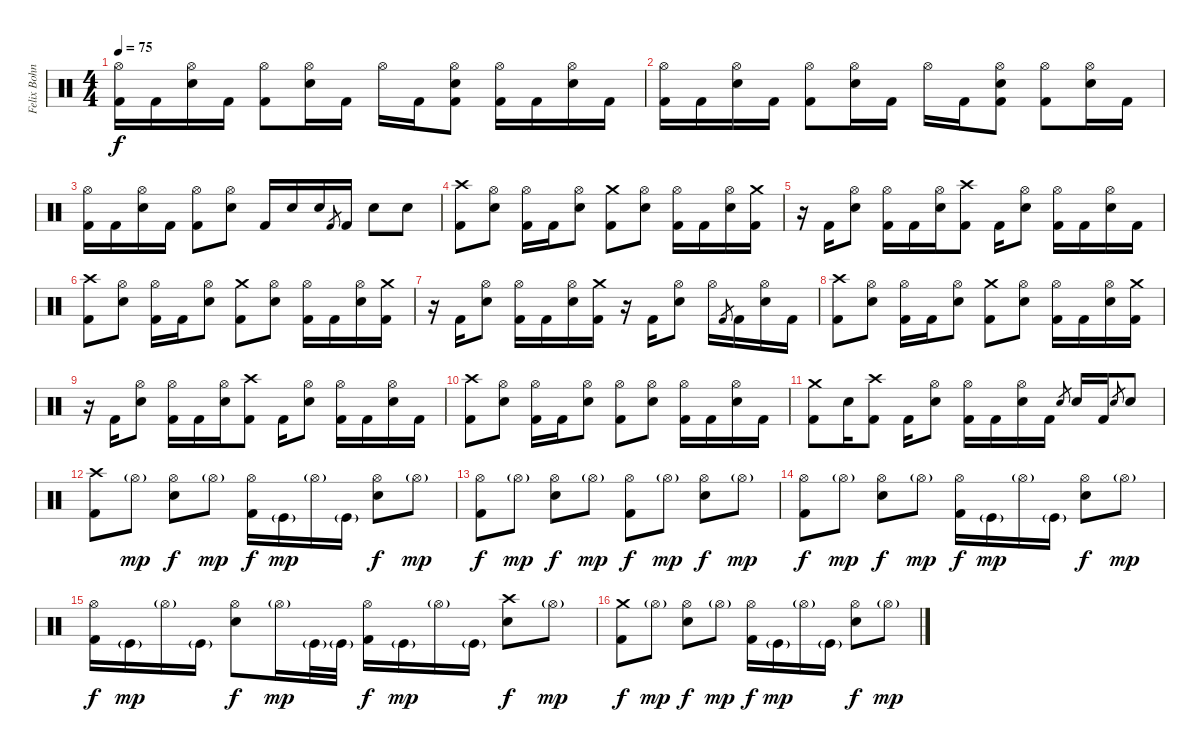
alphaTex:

\track ("Felix Bohnke" "Felix Bohn") {instrument percussion}
\staff {score}
\articulation defaults
\ts (4 4)
\tempo 75
\clef neutral
\ks c
("Hi-Hat (open)" "Kick (hit) 2").16{dy f} "Kick (hit) 2".16 ("Hi-Hat (open)" "Snare (hit) 2").16 "Kick (hit) 2".16 ("Hi-Hat (open)" "Kick (hit) 2").8 ("Hi-Hat (open)" "Snare (hit) 2").16 "Kick (hit) 2".16 "Hi-Hat (open)".16 "Kick (hit) 2".16 ("Hi-Hat (open)" "Snare (hit) 2" "Kick (hit) 2").8 ("Hi-Hat (open)" "Kick (hit) 2").16 "Kick (hit) 2".16 ("Hi-Hat (open)" "Snare (hit) 2").16 "Kick (hit) 2".16 |
("Hi-Hat (open)" "Kick (hit) 2").16 "Kick (hit) 2".16 ("Hi-Hat (open)" "Snare (hit) 2").16 "Kick (hit) 2".16 ("Hi-Hat (open)" "Kick (hit) 2").8 ("Hi-Hat (open)" "Snare (hit) 2").16 "Kick (hit) 2".16 "Hi-Hat (open)".16 "Kick (hit) 2".16 ("Hi-Hat (open)" "Snare (hit) 2" "Kick (hit) 2").8 ("Hi-Hat (open)" "Kick (hit) 2").8 ("Hi-Hat (open)" "Snare (hit) 2").16 "Kick (hit) 2".16 |
("Hi-Hat (open)" "Kick (hit) 2").16 "Kick (hit) 2".16 ("Hi-Hat (open)" "Snare (hit) 2").16 "Kick (hit) 2".16 ("Hi-Hat (open)" "Kick (hit) 2").8 ("Hi-Hat (open)" "Snare (hit) 2").8 "Kick (hit) 2".16 "Snare (hit) 2".16 "Snare (hit) 2".16 "Kick (hit) 2".8{gr} "Kick (hit) 2".16 "Snare (hit) 2".8 "Snare (hit) 2".8 |
("Crash high (hit)" "Kick (hit) 2").8 ("Hi-Hat (open)" "Snare (hit) 2").8 ("Hi-Hat (open)" "Kick (hit) 2").16 "Kick (hit) 2".16 ("Hi-Hat (open)" "Snare (hit) 2").8 ("Crash medium (hit)" "Kick (hit) 2").8 ("Hi-Hat (open)" "Snare (hit) 2").8 ("Hi-Hat (open)" "Kick (hit) 2").16 "Kick (hit) 2".16 ("Hi-Hat (open)" "Snare (hit) 2").16 ("Crash medium (hit)" "Kick (hit) 2").16 |
r.16 "Kick (hit) 2".16 ("Hi-Hat (open)" "Snare (hit) 2").8 ("Hi-Hat (open)" "Kick (hit) 2").16 "Kick (hit) 2".16 ("Hi-Hat (open)" "Snare (hit) 2").16 ("Crash high (hit)" "Kick (hit) 2").8 "Kick (hit) 2".16 ("Hi-Hat (open)" "Snare (hit) 2").8 ("Hi-Hat (open)" "Kick (hit) 2").16 "Kick (hit) 2".16 ("Hi-Hat (open)" "Snare (hit) 2").16 "Kick (hit) 2".16 |
("Crash high (hit)" "Kick (hit) 2").8 ("Hi-Hat (open)" "Snare (hit) 2").8 ("Hi-Hat (open)" "Kick (hit) 2").16 "Kick (hit) 2".16 ("Hi-Hat (open)" "Snare (hit) 2").8 ("Crash medium (hit)" "Kick (hit) 2").8 ("Hi-Hat (open)" "Snare (hit) 2").8 ("Hi-Hat (open)" "Kick (hit) 2").16 "Kick (hit) 2".16 ("Hi-Hat (open)" "Snare (hit) 2").16 ("Crash medium (hit)" "Kick (hit) 2").16 |
r.16 "Kick (hit) 2".16 ("Hi-Hat (open)" "Snare (hit) 2").8 ("Hi-Hat (open)" "Kick (hit) 2").16 "Kick (hit) 2".16 ("Hi-Hat (open)" "Snare (hit) 2").16 ("Crash medium (hit)" "Kick (hit) 2").16 r.16 "Kick (hit) 2".16 ("Hi-Hat (open)" "Snare (hit) 2").8 "Hi-Hat (open)".16 "Kick (hit) 2".8{gr} "Kick (hit) 2".16 ("Hi-Hat (open)" "Snare (hit) 2").16 "Kick (hit) 2".16 |
("Crash high (hit)" "Kick (hit) 2").8 ("Hi-Hat (open)" "Snare (hit) 2").8 ("Hi-Hat (open)" "Kick (hit) 2").16 "Kick (hit) 2".16 ("Hi-Hat (open)" "Snare (hit) 2").8 ("Crash medium (hit)" "Kick (hit) 2").8 ("Hi-Hat (open)" "Snare (hit) 2").8 ("Hi-Hat (open)" "Kick (hit) 2").16 "Kick (hit) 2".16 ("Hi-Hat (open)" "Snare (hit) 2").16 ("Crash medium (hit)" "Kick (hit) 2").16 |
r.16 "Kick (hit) 2".16 ("Hi-Hat (open)" "Snare (hit) 2").8 ("Hi-Hat (open)" "Kick (hit) 2").16 "Kick (hit) 2".16 ("Hi-Hat (open)" "Snare (hit) 2").16 ("Crash high (hit)" "Kick (hit) 2").8 "Kick (hit) 2".16 ("Hi-Hat (open)" "Snare (hit) 2").8 ("Hi-Hat (open)" "Kick (hit) 2").16 "Kick (hit) 2".16 ("Hi-Hat (open)" "Snare (hit) 2").16 "Kick (hit) 2".16 |
("Crash high (hit)" "Kick (hit) 2").8 ("Hi-Hat (open)" "Snare (hit) 2").8 ("Hi-Hat (open)" "Kick (hit) 2").16 "Kick (hit) 2".16 ("Hi-Hat (open)" "Snare (hit) 2").8 ("Hi-Hat (open)" "Kick (hit) 2").8 ("Hi-Hat (open)" "Snare (hit) 2").8 ("Hi-Hat (open)" "Kick (hit) 2").16 "Kick (hit) 2".16 ("Hi-Hat (open)" "Snare (hit) 2").16 "Kick (hit) 2".16 |
("Crash medium (hit)" "Kick (hit) 2").8 "Snare (hit) 2".16 ("Crash high (hit)" "Kick (hit) 2").8 "Kick (hit) 2".16 ("Hi-Hat (open)" "Snare (hit) 2").8 ("Hi-Hat (open)" "Kick (hit) 2").16 "Kick (hit) 2".16 ("Hi-Hat (open)" "Snare (hit) 2").16 "Kick (hit) 2".16 "Snare (hit) 2".8{gr} "Snare (hit) 2".16 "Kick (hit) 2".16 "Snare (hit) 2".8{gr} "Snare (hit) 2".8 |
("Crash high (hit)" "Kick (hit) 2").8 "Hi-Hat (open)"{g}.8{dy mp} ("Hi-Hat (open)" "Snare (hit) 2").8{dy f} "Hi-Hat (open)"{g}.8{dy mp} ("Hi-Hat (open)" "Kick (hit) 2").16{dy f} "Kick (hit)"{g}.16{dy mp} "Hi-Hat (open)"{g}.16 "Kick (hit)"{g}.16 ("Hi-Hat (open)" "Snare (hit) 2").8{dy f} "Hi-Hat (open)"{g}.8{dy mp} |
("Hi-Hat (open)" "Kick (hit) 2").8{dy f} "Hi-Hat (open)"{g}.8{dy mp} ("Hi-Hat (open)" "Snare (hit) 2").8{dy f} "Hi-Hat (open)"{g}.8{dy mp} ("Hi-Hat (open)" "Kick (hit) 2").8{dy f} "Hi-Hat (open)"{g}.8{dy mp} ("Hi-Hat (open)" "Snare (hit) 2").8{dy f} "Hi-Hat (open)"{g}.8{dy mp} |
("Hi-Hat (open)" "Kick (hit) 2").8{dy f} "Hi-Hat (open)"{g}.8{dy mp} ("Hi-Hat (open)" "Snare (hit) 2").8{dy f} "Hi-Hat (open)"{g}.8{dy mp} ("Hi-Hat (open)" "Kick (hit) 2").16{dy f} "Kick (hit)"{g}.16{dy mp} "Hi-Hat (open)"{g}.16 "Kick (hit)"{g}.16 ("Hi-Hat (open)" "Snare (hit) 2").8{dy f} "Hi-Hat (open)"{g}.8{dy mp} |
("Hi-Hat (open)" "Kick (hit) 2").16{dy f} "Kick (hit)"{g}.16{dy mp} "Hi-Hat (open)"{g}.16 "Kick (hit)"{g}.16 ("Hi-Hat (open)" "Snare (hit) 2").8{dy f} "Hi-Hat (open)"{g}.16{dy mp} "Kick (hit)"{g}.32 "Kick (hit)"{g}.32 ("Hi-Hat (open)" "Kick (hit) 2").16{dy f} "Kick (hit)"{g}.16{dy mp} "Hi-Hat (open)"{g}.16 "Kick (hit)"{g}.16 ("Crash high (hit)" "Snare (hit) 2").8{dy f} "Hi-Hat (open)"{g}.8{dy mp} |
("Crash medium (hit)" "Kick (hit) 2").8{dy f} "Hi-Hat (open)"{g}.8{dy mp} ("Hi-Hat (open)" "Snare (hit) 2").8{dy f} "Hi-Hat (open)"{g}.8{dy mp} ("Hi-Hat (open)" "Kick (hit) 2").16{dy f} "Kick (hit)"{g}.16{dy mp} "Hi-Hat (open)"{g}.16 "Kick (hit)"{g}.16 ("Hi-Hat (open)" "Snare (hit) 2").8{dy f} "Hi-Hat (open)"{g}.8{dy mp}
